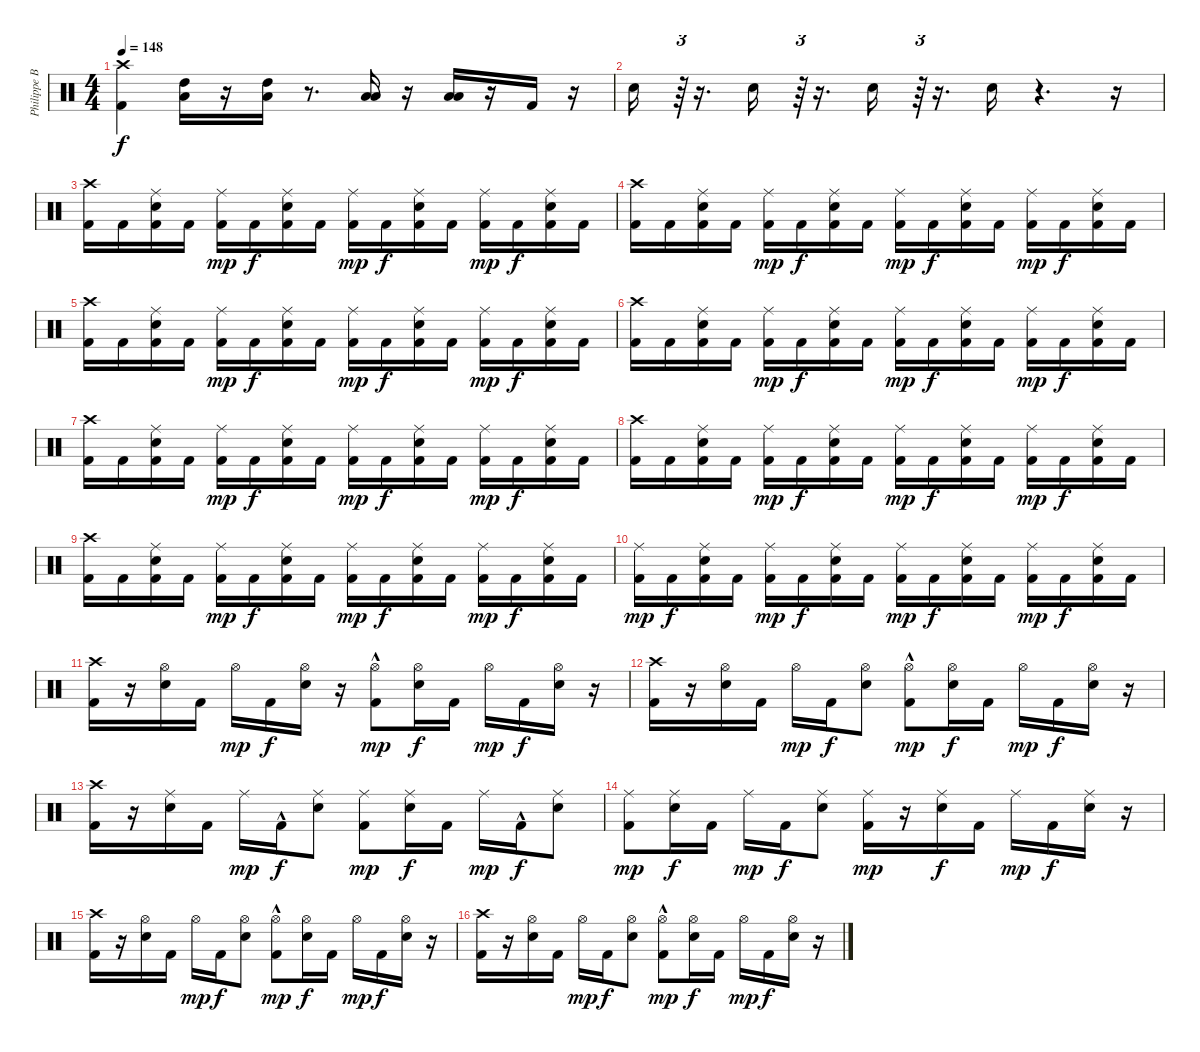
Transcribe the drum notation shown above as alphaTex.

\track ("Philippe Borda" "Philippe B") {instrument percussion}
\staff {score}
\articulation defaults
\ts (4 4)
\tempo 148
\clef neutral
\ks c
("Crash high (hit)" "Kick (hit) 2").4{dy f} ("Low Tom (hit)" "High Tom (hit)").16 r.16 ("Low Tom (hit)" "High Tom (hit)").16 r.8{d} ("Low Floor Tom (hit)" "Low Tom (hit)").16 r.16 ("Low Floor Tom (hit)" "Low Tom (hit)").16 r.16 "Kick (hit) 2".16 r.16 |
"Snare (hit) 2".16 r.64{tu (3 2)} r.16{d} "Snare (hit) 2".16 r.64{tu (3 2)} r.16{d} "Snare (hit) 2".16 r.64{tu (3 2)} r.16{d} "Snare (hit) 2".16 r.4{d} r.16 |
("Crash high (hit)" "Kick (hit) 2").16 "Kick (hit) 2".16 ("Kick (hit) 2" "Snare (hit) 2" "Ride (middle)").16 "Kick (hit) 2".16 ("Kick (hit) 2" "Ride (middle)").16{dy mp} "Kick (hit) 2".16{dy f} ("Kick (hit) 2" "Ride (middle)" "Snare (hit) 2").16 "Kick (hit) 2".16 ("Kick (hit) 2" "Ride (middle)").16{dy mp} "Kick (hit) 2".16{dy f} ("Kick (hit) 2" "Ride (middle)" "Snare (hit) 2").16 "Kick (hit) 2".16 ("Kick (hit) 2" "Ride (middle)").16{dy mp} "Kick (hit) 2".16{dy f} ("Kick (hit) 2" "Ride (middle)" "Snare (hit) 2").16 "Kick (hit) 2".16 |
("Crash high (hit)" "Kick (hit) 2").16 "Kick (hit) 2".16 ("Kick (hit) 2" "Snare (hit) 2" "Ride (middle)").16 "Kick (hit) 2".16 ("Kick (hit) 2" "Ride (middle)").16{dy mp} "Kick (hit) 2".16{dy f} ("Kick (hit) 2" "Snare (hit) 2" "Ride (middle)").16 "Kick (hit) 2".16 ("Kick (hit) 2" "Ride (middle)").16{dy mp} "Kick (hit) 2".16{dy f} ("Kick (hit) 2" "Snare (hit) 2" "Ride (middle)").16 "Kick (hit) 2".16 ("Kick (hit) 2" "Ride (middle)").16{dy mp} "Kick (hit) 2".16{dy f} ("Kick (hit) 2" "Snare (hit) 2" "Ride (middle)").16 "Kick (hit) 2".16 |
("Crash high (hit)" "Kick (hit) 2").16 "Kick (hit) 2".16 ("Kick (hit) 2" "Snare (hit) 2" "Ride (middle)").16 "Kick (hit) 2".16 ("Kick (hit) 2" "Ride (middle)").16{dy mp} "Kick (hit) 2".16{dy f} ("Kick (hit) 2" "Snare (hit) 2" "Ride (middle)").16 "Kick (hit) 2".16 ("Kick (hit) 2" "Ride (middle)").16{dy mp} "Kick (hit) 2".16{dy f} ("Kick (hit) 2" "Snare (hit) 2" "Ride (middle)").16 "Kick (hit) 2".16 ("Kick (hit) 2" "Ride (middle)").16{dy mp} "Kick (hit) 2".16{dy f} ("Kick (hit) 2" "Snare (hit) 2" "Ride (middle)").16 "Kick (hit) 2".16 |
("Crash high (hit)" "Kick (hit) 2").16 "Kick (hit) 2".16 ("Kick (hit) 2" "Snare (hit) 2" "Ride (middle)").16 "Kick (hit) 2".16 ("Kick (hit) 2" "Ride (middle)").16{dy mp} "Kick (hit) 2".16{dy f} ("Kick (hit) 2" "Snare (hit) 2" "Ride (middle)").16 "Kick (hit) 2".16 ("Kick (hit) 2" "Ride (middle)").16{dy mp} "Kick (hit) 2".16{dy f} ("Kick (hit) 2" "Snare (hit) 2" "Ride (middle)").16 "Kick (hit) 2".16 ("Kick (hit) 2" "Ride (middle)").16{dy mp} "Kick (hit) 2".16{dy f} ("Kick (hit) 2" "Snare (hit) 2" "Ride (middle)").16 "Kick (hit) 2".16 |
("Crash high (hit)" "Kick (hit) 2").16 "Kick (hit) 2".16 ("Kick (hit) 2" "Snare (hit) 2" "Ride (middle)").16 "Kick (hit) 2".16 ("Kick (hit) 2" "Ride (middle)").16{dy mp} "Kick (hit) 2".16{dy f} ("Kick (hit) 2" "Snare (hit) 2" "Ride (middle)").16 "Kick (hit) 2".16 ("Kick (hit) 2" "Ride (middle)").16{dy mp} "Kick (hit) 2".16{dy f} ("Kick (hit) 2" "Snare (hit) 2" "Ride (middle)").16 "Kick (hit) 2".16 ("Kick (hit) 2" "Ride (middle)").16{dy mp} "Kick (hit) 2".16{dy f} ("Kick (hit) 2" "Snare (hit) 2" "Ride (middle)").16 "Kick (hit) 2".16 |
("Crash high (hit)" "Kick (hit) 2").16 "Kick (hit) 2".16 ("Kick (hit) 2" "Snare (hit) 2" "Ride (middle)").16 "Kick (hit) 2".16 ("Kick (hit) 2" "Ride (middle)").16{dy mp} "Kick (hit) 2".16{dy f} ("Kick (hit) 2" "Snare (hit) 2" "Ride (middle)").16 "Kick (hit) 2".16 ("Kick (hit) 2" "Ride (middle)").16{dy mp} "Kick (hit) 2".16{dy f} ("Kick (hit) 2" "Snare (hit) 2" "Ride (middle)").16 "Kick (hit) 2".16 ("Kick (hit) 2" "Ride (middle)").16{dy mp} "Kick (hit) 2".16{dy f} ("Kick (hit) 2" "Snare (hit) 2" "Ride (middle)").16 "Kick (hit) 2".16 |
("Crash high (hit)" "Kick (hit) 2").16 "Kick (hit) 2".16 ("Kick (hit) 2" "Snare (hit) 2" "Ride (middle)").16 "Kick (hit) 2".16 ("Kick (hit) 2" "Ride (middle)").16{dy mp} "Kick (hit) 2".16{dy f} ("Kick (hit) 2" "Snare (hit) 2" "Ride (middle)").16 "Kick (hit) 2".16 ("Kick (hit) 2" "Ride (middle)").16{dy mp} "Kick (hit) 2".16{dy f} ("Kick (hit) 2" "Snare (hit) 2" "Ride (middle)").16 "Kick (hit) 2".16 ("Kick (hit) 2" "Ride (middle)").16{dy mp} "Kick (hit) 2".16{dy f} ("Kick (hit) 2" "Snare (hit) 2" "Ride (middle)").16 "Kick (hit) 2".16 |
("Kick (hit) 2" "Ride (middle)").16{dy mp} "Kick (hit) 2".16{dy f} ("Kick (hit) 2" "Snare (hit) 2" "Ride (middle)").16 "Kick (hit) 2".16 ("Kick (hit) 2" "Ride (middle)").16{dy mp} "Kick (hit) 2".16{dy f} ("Kick (hit) 2" "Snare (hit) 2" "Ride (middle)").16 "Kick (hit) 2".16 ("Kick (hit) 2" "Ride (middle)").16{dy mp} "Kick (hit) 2".16{dy f} ("Kick (hit) 2" "Snare (hit) 2" "Ride (middle)").16 "Kick (hit) 2".16 ("Kick (hit) 2" "Ride (middle)").16{dy mp} "Kick (hit) 2".16{dy f} ("Kick (hit) 2" "Snare (hit) 2" "Ride (middle)").16 "Kick (hit) 2".16 |
("Crash high (hit)" "Kick (hit) 2").16 r.16 ("Hi-Hat (open)" "Snare (hit) 2").16 "Kick (hit) 2".16 "Hi-Hat (open)".16{dy mp} "Kick (hit) 2".16{dy f} ("Snare (hit) 2" "Hi-Hat (open)").16 r.16 ("Hi-Hat (open)" "Kick (hit) 2"{hac}).8{dy mp} ("Hi-Hat (open)" "Snare (hit) 2").16{dy f} "Kick (hit) 2".16 "Hi-Hat (open)".16{dy mp} "Kick (hit) 2".16{dy f} ("Hi-Hat (open)" "Snare (hit) 2").16 r.16 |
("Crash high (hit)" "Kick (hit) 2").16 r.16 ("Snare (hit) 2" "Hi-Hat (open)").16 "Kick (hit) 2".16 "Hi-Hat (open)".16{dy mp} "Kick (hit) 2".16{dy f} ("Snare (hit) 2" "Hi-Hat (open)").8 ("Kick (hit) 2"{hac} "Hi-Hat (open)").8{dy mp} ("Snare (hit) 2" "Hi-Hat (open)").16{dy f} "Kick (hit) 2".16 "Hi-Hat (open)".16{dy mp} "Kick (hit) 2".16{dy f} ("Snare (hit) 2" "Hi-Hat (open)").16 r.16 |
("Crash high (hit)" "Kick (hit) 2").16 r.16 ("Ride (middle)" "Snare (hit) 2").16 "Kick (hit) 2".16 "Ride (middle)".16{dy mp} "Kick (hit) 2"{hac}.16{dy f} ("Ride (middle)" "Snare (hit) 2").8 ("Ride (middle)" "Kick (hit) 2").8{dy mp} ("Ride (middle)" "Snare (hit) 2").16{dy f} "Kick (hit) 2".16 "Ride (middle)".16{dy mp} "Kick (hit) 2"{hac}.16{dy f} ("Ride (middle)" "Snare (hit) 2").8 |
("Kick (hit) 2" "Ride (middle)").8{dy mp} ("Ride (middle)" "Snare (hit) 2").16{dy f} "Kick (hit) 2".16 "Ride (middle)".16{dy mp} "Kick (hit) 2".16{dy f} ("Ride (middle)" "Snare (hit) 2").8 ("Kick (hit) 2" "Ride (middle)").16{dy mp} r.16 ("Ride (middle)" "Snare (hit) 2").16{dy f} "Kick (hit) 2".16 "Ride (middle)".16{dy mp} "Kick (hit) 2".16{dy f} ("Ride (middle)" "Snare (hit) 2").16 r.16 |
("Crash high (hit)" "Kick (hit) 2").16 r.16 ("Snare (hit) 2" "Hi-Hat (open)").16 "Kick (hit) 2".16 "Hi-Hat (open)".16{dy mp} "Kick (hit) 2".16{dy f} ("Snare (hit) 2" "Hi-Hat (open)").8 ("Kick (hit) 2"{hac} "Hi-Hat (open)").8{dy mp} ("Snare (hit) 2" "Hi-Hat (open)").16{dy f} "Kick (hit) 2".16 "Hi-Hat (open)".16{dy mp} "Kick (hit) 2".16{dy f} ("Snare (hit) 2" "Hi-Hat (open)").16 r.16 |
("Crash high (hit)" "Kick (hit) 2").16 r.16 ("Snare (hit) 2" "Hi-Hat (open)").16 "Kick (hit) 2".16 "Hi-Hat (open)".16{dy mp} "Kick (hit) 2".16{dy f} ("Snare (hit) 2" "Hi-Hat (open)").8 ("Kick (hit) 2"{hac} "Hi-Hat (open)").8{dy mp} ("Snare (hit) 2" "Hi-Hat (open)").16{dy f} "Kick (hit) 2".16 "Hi-Hat (open)".16{dy mp} "Kick (hit) 2".16{dy f} ("Snare (hit) 2" "Hi-Hat (open)").16 r.16
